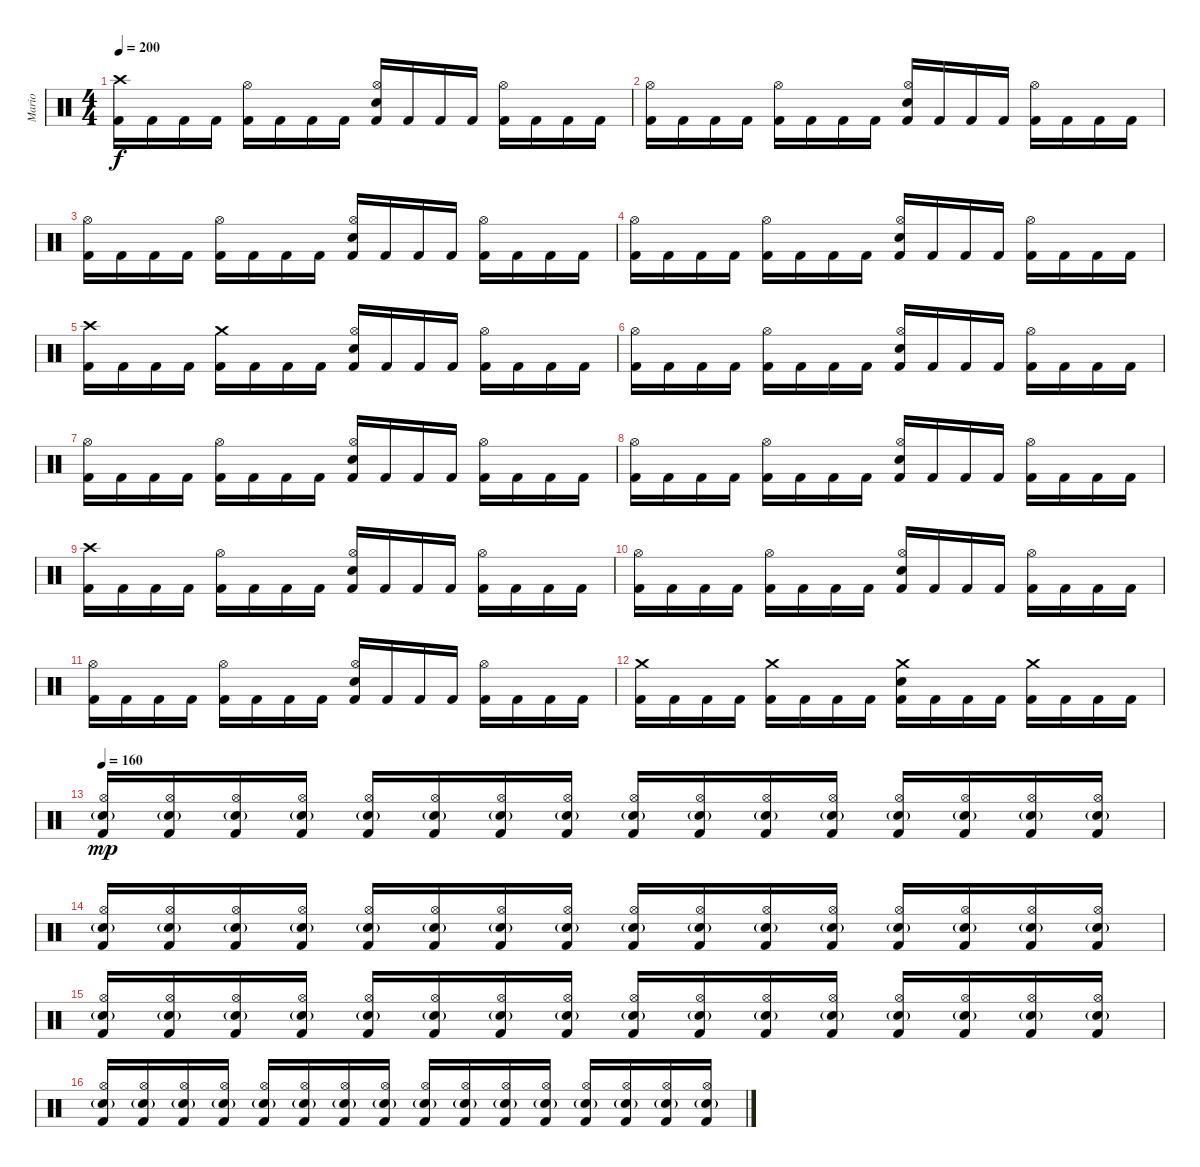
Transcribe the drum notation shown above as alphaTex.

\track ("Mario" "Mario") {instrument percussion}
\staff {score}
\articulation defaults
\ts (4 4)
\tempo 200
\clef neutral
\ks c
("Crash high (hit)" "Kick (hit) 2").16{dy f} "Kick (hit) 2".16 "Kick (hit) 2".16 "Kick (hit) 2".16 ("Hi-Hat (open)" "Kick (hit) 2").16 "Kick (hit) 2".16 "Kick (hit) 2".16 "Kick (hit) 2".16 ("Hi-Hat (open)" "Electric Snare (hit)" "Kick (hit) 2").16 "Kick (hit) 2".16 "Kick (hit) 2".16 "Kick (hit) 2".16 ("Hi-Hat (open)" "Kick (hit) 2").16 "Kick (hit) 2".16 "Kick (hit) 2".16 "Kick (hit) 2".16 |
("Hi-Hat (open)" "Kick (hit) 2").16 "Kick (hit) 2".16 "Kick (hit) 2".16 "Kick (hit) 2".16 ("Hi-Hat (open)" "Kick (hit) 2").16 "Kick (hit) 2".16 "Kick (hit) 2".16 "Kick (hit) 2".16 ("Hi-Hat (open)" "Electric Snare (hit)" "Kick (hit) 2").16 "Kick (hit) 2".16 "Kick (hit) 2".16 "Kick (hit) 2".16 ("Hi-Hat (open)" "Kick (hit) 2").16 "Kick (hit) 2".16 "Kick (hit) 2".16 "Kick (hit) 2".16 |
("Hi-Hat (open)" "Kick (hit) 2").16 "Kick (hit) 2".16 "Kick (hit) 2".16 "Kick (hit) 2".16 ("Hi-Hat (open)" "Kick (hit) 2").16 "Kick (hit) 2".16 "Kick (hit) 2".16 "Kick (hit) 2".16 ("Hi-Hat (open)" "Electric Snare (hit)" "Kick (hit) 2").16 "Kick (hit) 2".16 "Kick (hit) 2".16 "Kick (hit) 2".16 ("Hi-Hat (open)" "Kick (hit) 2").16 "Kick (hit) 2".16 "Kick (hit) 2".16 "Kick (hit) 2".16 |
("Hi-Hat (open)" "Kick (hit) 2").16 "Kick (hit) 2".16 "Kick (hit) 2".16 "Kick (hit) 2".16 ("Hi-Hat (open)" "Kick (hit) 2").16 "Kick (hit) 2".16 "Kick (hit) 2".16 "Kick (hit) 2".16 ("Hi-Hat (open)" "Electric Snare (hit)" "Kick (hit) 2").16 "Kick (hit) 2".16 "Kick (hit) 2".16 "Kick (hit) 2".16 ("Hi-Hat (open)" "Kick (hit) 2").16 "Kick (hit) 2".16 "Kick (hit) 2".16 "Kick (hit) 2".16 |
("Crash high (hit)" "Kick (hit) 2").16 "Kick (hit) 2".16 "Kick (hit) 2".16 "Kick (hit) 2".16 ("Crash medium (hit)" "Kick (hit) 2").16 "Kick (hit) 2".16 "Kick (hit) 2".16 "Kick (hit) 2".16 ("Hi-Hat (open)" "Electric Snare (hit)" "Kick (hit) 2").16 "Kick (hit) 2".16 "Kick (hit) 2".16 "Kick (hit) 2".16 ("Hi-Hat (open)" "Kick (hit) 2").16 "Kick (hit) 2".16 "Kick (hit) 2".16 "Kick (hit) 2".16 |
("Hi-Hat (open)" "Kick (hit) 2").16 "Kick (hit) 2".16 "Kick (hit) 2".16 "Kick (hit) 2".16 ("Hi-Hat (open)" "Kick (hit) 2").16 "Kick (hit) 2".16 "Kick (hit) 2".16 "Kick (hit) 2".16 ("Hi-Hat (open)" "Electric Snare (hit)" "Kick (hit) 2").16 "Kick (hit) 2".16 "Kick (hit) 2".16 "Kick (hit) 2".16 ("Hi-Hat (open)" "Kick (hit) 2").16 "Kick (hit) 2".16 "Kick (hit) 2".16 "Kick (hit) 2".16 |
("Hi-Hat (open)" "Kick (hit) 2").16 "Kick (hit) 2".16 "Kick (hit) 2".16 "Kick (hit) 2".16 ("Hi-Hat (open)" "Kick (hit) 2").16 "Kick (hit) 2".16 "Kick (hit) 2".16 "Kick (hit) 2".16 ("Hi-Hat (open)" "Electric Snare (hit)" "Kick (hit) 2").16 "Kick (hit) 2".16 "Kick (hit) 2".16 "Kick (hit) 2".16 ("Hi-Hat (open)" "Kick (hit) 2").16 "Kick (hit) 2".16 "Kick (hit) 2".16 "Kick (hit) 2".16 |
("Hi-Hat (open)" "Kick (hit) 2").16 "Kick (hit) 2".16 "Kick (hit) 2".16 "Kick (hit) 2".16 ("Hi-Hat (open)" "Kick (hit) 2").16 "Kick (hit) 2".16 "Kick (hit) 2".16 "Kick (hit) 2".16 ("Hi-Hat (open)" "Electric Snare (hit)" "Kick (hit) 2").16 "Kick (hit) 2".16 "Kick (hit) 2".16 "Kick (hit) 2".16 ("Hi-Hat (open)" "Kick (hit) 2").16 "Kick (hit) 2".16 "Kick (hit) 2".16 "Kick (hit) 2".16 |
("Crash high (hit)" "Kick (hit) 2").16 "Kick (hit) 2".16 "Kick (hit) 2".16 "Kick (hit) 2".16 ("Hi-Hat (open)" "Kick (hit) 2").16 "Kick (hit) 2".16 "Kick (hit) 2".16 "Kick (hit) 2".16 ("Hi-Hat (open)" "Electric Snare (hit)" "Kick (hit) 2").16 "Kick (hit) 2".16 "Kick (hit) 2".16 "Kick (hit) 2".16 ("Hi-Hat (open)" "Kick (hit) 2").16 "Kick (hit) 2".16 "Kick (hit) 2".16 "Kick (hit) 2".16 |
("Hi-Hat (open)" "Kick (hit) 2").16 "Kick (hit) 2".16 "Kick (hit) 2".16 "Kick (hit) 2".16 ("Hi-Hat (open)" "Kick (hit) 2").16 "Kick (hit) 2".16 "Kick (hit) 2".16 "Kick (hit) 2".16 ("Hi-Hat (open)" "Electric Snare (hit)" "Kick (hit) 2").16 "Kick (hit) 2".16 "Kick (hit) 2".16 "Kick (hit) 2".16 ("Hi-Hat (open)" "Kick (hit) 2").16 "Kick (hit) 2".16 "Kick (hit) 2".16 "Kick (hit) 2".16 |
("Hi-Hat (open)" "Kick (hit) 2").16 "Kick (hit) 2".16 "Kick (hit) 2".16 "Kick (hit) 2".16 ("Hi-Hat (open)" "Kick (hit) 2").16 "Kick (hit) 2".16 "Kick (hit) 2".16 "Kick (hit) 2".16 ("Hi-Hat (open)" "Electric Snare (hit)" "Kick (hit) 2").16 "Kick (hit) 2".16 "Kick (hit) 2".16 "Kick (hit) 2".16 ("Hi-Hat (open)" "Kick (hit) 2").16 "Kick (hit) 2".16 "Kick (hit) 2".16 "Kick (hit) 2".16 |
("Crash medium (hit)" "Kick (hit) 2").16 "Kick (hit) 2".16 "Kick (hit) 2".16 "Kick (hit) 2".16 ("Crash medium (hit)" "Kick (hit) 2").16 "Kick (hit) 2".16 "Kick (hit) 2".16 "Kick (hit) 2".16 ("Crash medium (hit)" "Electric Snare (hit)" "Kick (hit) 2").16 "Kick (hit) 2".16 "Kick (hit) 2".16 "Kick (hit) 2".16 ("Crash medium (hit)" "Kick (hit) 2").16 "Kick (hit) 2".16 "Kick (hit) 2".16 "Kick (hit) 2".16 |
\tempo 160
("Hi-Hat (open)" "Electric Snare (hit)"{g} "Kick (hit) 2").16{dy mp} ("Hi-Hat (open)" "Electric Snare (hit)"{g} "Kick (hit) 2").16 ("Hi-Hat (open)" "Electric Snare (hit)"{g} "Kick (hit) 2").16 ("Hi-Hat (open)" "Electric Snare (hit)"{g} "Kick (hit) 2").16 ("Hi-Hat (open)" "Electric Snare (hit)"{g} "Kick (hit) 2").16 ("Hi-Hat (open)" "Electric Snare (hit)"{g} "Kick (hit) 2").16 ("Hi-Hat (open)" "Electric Snare (hit)"{g} "Kick (hit) 2").16 ("Hi-Hat (open)" "Electric Snare (hit)"{g} "Kick (hit) 2").16 ("Hi-Hat (open)" "Electric Snare (hit)"{g} "Kick (hit) 2").16 ("Hi-Hat (open)" "Electric Snare (hit)"{g} "Kick (hit) 2").16 ("Hi-Hat (open)" "Electric Snare (hit)"{g} "Kick (hit) 2").16 ("Hi-Hat (open)" "Electric Snare (hit)"{g} "Kick (hit) 2").16 ("Hi-Hat (open)" "Electric Snare (hit)"{g} "Kick (hit) 2").16 ("Hi-Hat (open)" "Electric Snare (hit)"{g} "Kick (hit) 2").16 ("Hi-Hat (open)" "Electric Snare (hit)"{g} "Kick (hit) 2").16 ("Hi-Hat (open)" "Electric Snare (hit)"{g} "Kick (hit) 2").16 |
("Hi-Hat (open)" "Electric Snare (hit)"{g} "Kick (hit) 2").16 ("Hi-Hat (open)" "Electric Snare (hit)"{g} "Kick (hit) 2").16 ("Hi-Hat (open)" "Electric Snare (hit)"{g} "Kick (hit) 2").16 ("Hi-Hat (open)" "Electric Snare (hit)"{g} "Kick (hit) 2").16 ("Hi-Hat (open)" "Electric Snare (hit)"{g} "Kick (hit) 2").16 ("Hi-Hat (open)" "Electric Snare (hit)"{g} "Kick (hit) 2").16 ("Hi-Hat (open)" "Electric Snare (hit)"{g} "Kick (hit) 2").16 ("Hi-Hat (open)" "Electric Snare (hit)"{g} "Kick (hit) 2").16 ("Hi-Hat (open)" "Electric Snare (hit)"{g} "Kick (hit) 2").16 ("Hi-Hat (open)" "Electric Snare (hit)"{g} "Kick (hit) 2").16 ("Hi-Hat (open)" "Electric Snare (hit)"{g} "Kick (hit) 2").16 ("Hi-Hat (open)" "Electric Snare (hit)"{g} "Kick (hit) 2").16 ("Hi-Hat (open)" "Electric Snare (hit)"{g} "Kick (hit) 2").16 ("Hi-Hat (open)" "Electric Snare (hit)"{g} "Kick (hit) 2").16 ("Hi-Hat (open)" "Electric Snare (hit)"{g} "Kick (hit) 2").16 ("Hi-Hat (open)" "Electric Snare (hit)"{g} "Kick (hit) 2").16 |
("Hi-Hat (open)" "Electric Snare (hit)"{g} "Kick (hit) 2").16 ("Hi-Hat (open)" "Electric Snare (hit)"{g} "Kick (hit) 2").16 ("Hi-Hat (open)" "Electric Snare (hit)"{g} "Kick (hit) 2").16 ("Hi-Hat (open)" "Electric Snare (hit)"{g} "Kick (hit) 2").16 ("Hi-Hat (open)" "Electric Snare (hit)"{g} "Kick (hit) 2").16 ("Hi-Hat (open)" "Electric Snare (hit)"{g} "Kick (hit) 2").16 ("Hi-Hat (open)" "Electric Snare (hit)"{g} "Kick (hit) 2").16 ("Hi-Hat (open)" "Electric Snare (hit)"{g} "Kick (hit) 2").16 ("Hi-Hat (open)" "Electric Snare (hit)"{g} "Kick (hit) 2").16 ("Hi-Hat (open)" "Electric Snare (hit)"{g} "Kick (hit) 2").16 ("Hi-Hat (open)" "Electric Snare (hit)"{g} "Kick (hit) 2").16 ("Hi-Hat (open)" "Electric Snare (hit)"{g} "Kick (hit) 2").16 ("Hi-Hat (open)" "Electric Snare (hit)"{g} "Kick (hit) 2").16 ("Hi-Hat (open)" "Electric Snare (hit)"{g} "Kick (hit) 2").16 ("Hi-Hat (open)" "Electric Snare (hit)"{g} "Kick (hit) 2").16 ("Hi-Hat (open)" "Electric Snare (hit)"{g} "Kick (hit) 2").16 |
("Hi-Hat (open)" "Electric Snare (hit)"{g} "Kick (hit) 2").16 ("Hi-Hat (open)" "Electric Snare (hit)"{g} "Kick (hit) 2").16 ("Hi-Hat (open)" "Electric Snare (hit)"{g} "Kick (hit) 2").16 ("Hi-Hat (open)" "Electric Snare (hit)"{g} "Kick (hit) 2").16 ("Hi-Hat (open)" "Electric Snare (hit)"{g} "Kick (hit) 2").16 ("Hi-Hat (open)" "Electric Snare (hit)"{g} "Kick (hit) 2").16 ("Hi-Hat (open)" "Electric Snare (hit)"{g} "Kick (hit) 2").16 ("Hi-Hat (open)" "Electric Snare (hit)"{g} "Kick (hit) 2").16 ("Hi-Hat (open)" "Electric Snare (hit)"{g} "Kick (hit) 2").16 ("Hi-Hat (open)" "Electric Snare (hit)"{g} "Kick (hit) 2").16 ("Hi-Hat (open)" "Electric Snare (hit)"{g} "Kick (hit) 2").16 ("Hi-Hat (open)" "Electric Snare (hit)"{g} "Kick (hit) 2").16 ("Hi-Hat (open)" "Electric Snare (hit)"{g} "Kick (hit) 2").16 ("Hi-Hat (open)" "Electric Snare (hit)"{g} "Kick (hit) 2").16 ("Hi-Hat (open)" "Electric Snare (hit)"{g} "Kick (hit) 2").16 ("Hi-Hat (open)" "Electric Snare (hit)"{g} "Kick (hit) 2").16
